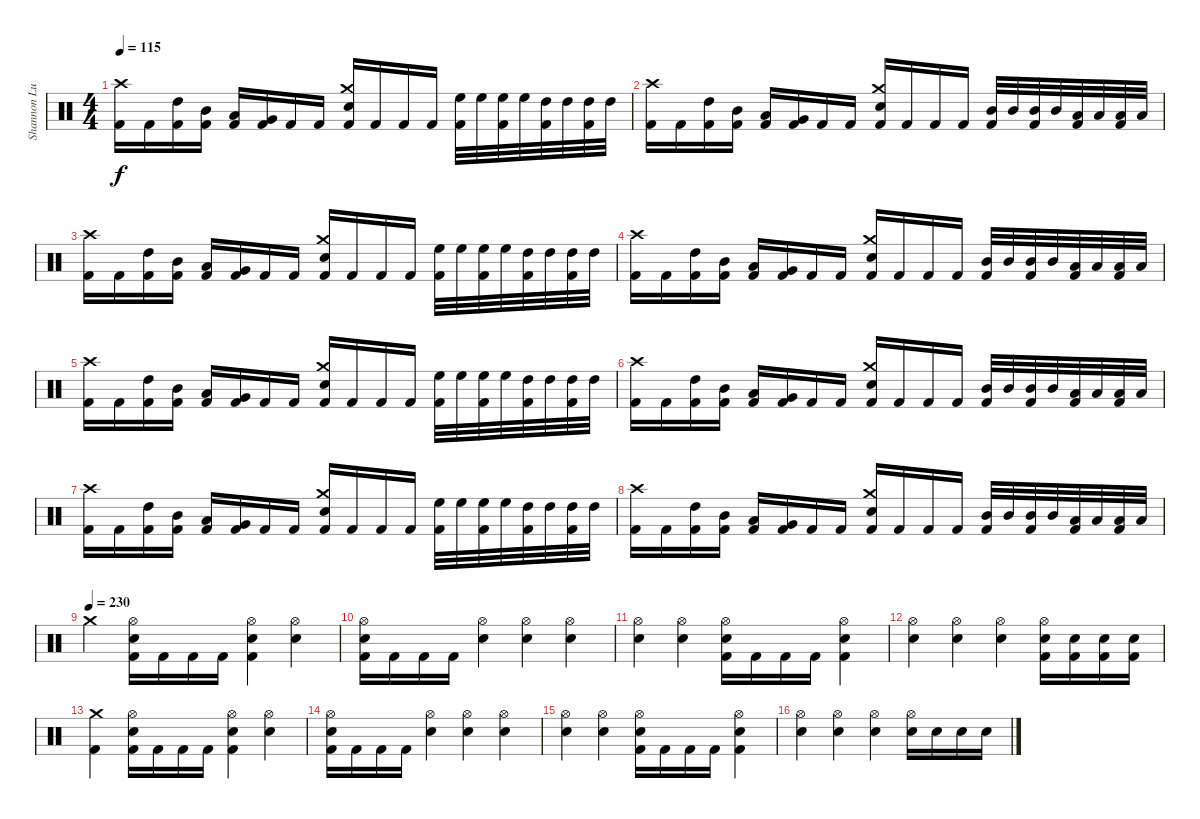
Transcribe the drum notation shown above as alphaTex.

\track ("Shannon Lucas" "Shannon Lu") {instrument percussion}
\staff {score}
\articulation defaults
\ts (4 4)
\tempo 115
\clef neutral
\ks c
("Crash high (hit)" "Kick (hit) 2").16{dy f} "Kick (hit) 2".16 ("High Tom (hit)" "Kick (hit) 2").16 ("Mid Tom (hit)" "Kick (hit) 2").16 ("Low Tom (hit)" "Kick (hit) 2").16 ("Very Low Tom (hit)" "Kick (hit) 2").16 "Kick (hit) 2".16 "Kick (hit) 2".16 ("Crash medium (hit)" "Electric Snare (hit)" "Kick (hit) 2").16 "Kick (hit) 2".16 "Kick (hit) 2".16 "Kick (hit) 2".16 ("High Floor Tom (hit)" "Kick (hit) 2").32 "High Floor Tom (hit)".32 ("High Floor Tom (hit)" "Kick (hit) 2").32 "High Floor Tom (hit)".32 ("High Tom (hit)" "Kick (hit) 2").32 "High Tom (hit)".32 ("High Tom (hit)" "Kick (hit) 2").32 "High Tom (hit)".32 |
("Crash high (hit)" "Kick (hit) 2").16 "Kick (hit) 2".16 ("High Tom (hit)" "Kick (hit) 2").16 ("Mid Tom (hit)" "Kick (hit) 2").16 ("Low Tom (hit)" "Kick (hit) 2").16 ("Very Low Tom (hit)" "Kick (hit) 2").16 "Kick (hit) 2".16 "Kick (hit) 2".16 ("Crash medium (hit)" "Electric Snare (hit)" "Kick (hit) 2").16 "Kick (hit) 2".16 "Kick (hit) 2".16 "Kick (hit) 2".16 ("Mid Tom (hit)" "Kick (hit) 2").32 "Mid Tom (hit)".32 ("Mid Tom (hit)" "Kick (hit) 2").32 "Mid Tom (hit)".32 ("Low Tom (hit)" "Kick (hit) 2").32 "Low Tom (hit)".32 ("Low Tom (hit)" "Kick (hit) 2").32 "Low Tom (hit)".32 |
("Crash high (hit)" "Kick (hit) 2").16 "Kick (hit) 2".16 ("High Tom (hit)" "Kick (hit) 2").16 ("Mid Tom (hit)" "Kick (hit) 2").16 ("Low Tom (hit)" "Kick (hit) 2").16 ("Very Low Tom (hit)" "Kick (hit) 2").16 "Kick (hit) 2".16 "Kick (hit) 2".16 ("Crash medium (hit)" "Electric Snare (hit)" "Kick (hit) 2").16 "Kick (hit) 2".16 "Kick (hit) 2".16 "Kick (hit) 2".16 ("High Floor Tom (hit)" "Kick (hit) 2").32 "High Floor Tom (hit)".32 ("High Floor Tom (hit)" "Kick (hit) 2").32 "High Floor Tom (hit)".32 ("High Tom (hit)" "Kick (hit) 2").32 "High Tom (hit)".32 ("High Tom (hit)" "Kick (hit) 2").32 "High Tom (hit)".32 |
("Crash high (hit)" "Kick (hit) 2").16 "Kick (hit) 2".16 ("High Tom (hit)" "Kick (hit) 2").16 ("Mid Tom (hit)" "Kick (hit) 2").16 ("Low Tom (hit)" "Kick (hit) 2").16 ("Very Low Tom (hit)" "Kick (hit) 2").16 "Kick (hit) 2".16 "Kick (hit) 2".16 ("Crash medium (hit)" "Electric Snare (hit)" "Kick (hit) 2").16 "Kick (hit) 2".16 "Kick (hit) 2".16 "Kick (hit) 2".16 ("Mid Tom (hit)" "Kick (hit) 2").32 "Mid Tom (hit)".32 ("Mid Tom (hit)" "Kick (hit) 2").32 "Mid Tom (hit)".32 ("Low Tom (hit)" "Kick (hit) 2").32 "Low Tom (hit)".32 ("Low Tom (hit)" "Kick (hit) 2").32 "Low Tom (hit)".32 |
("Crash high (hit)" "Kick (hit) 2").16 "Kick (hit) 2".16 ("High Tom (hit)" "Kick (hit) 2").16 ("Mid Tom (hit)" "Kick (hit) 2").16 ("Low Tom (hit)" "Kick (hit) 2").16 ("Very Low Tom (hit)" "Kick (hit) 2").16 "Kick (hit) 2".16 "Kick (hit) 2".16 ("Crash medium (hit)" "Electric Snare (hit)" "Kick (hit) 2").16 "Kick (hit) 2".16 "Kick (hit) 2".16 "Kick (hit) 2".16 ("High Floor Tom (hit)" "Kick (hit) 2").32 "High Floor Tom (hit)".32 ("High Floor Tom (hit)" "Kick (hit) 2").32 "High Floor Tom (hit)".32 ("High Tom (hit)" "Kick (hit) 2").32 "High Tom (hit)".32 ("High Tom (hit)" "Kick (hit) 2").32 "High Tom (hit)".32 |
("Crash high (hit)" "Kick (hit) 2").16 "Kick (hit) 2".16 ("High Tom (hit)" "Kick (hit) 2").16 ("Mid Tom (hit)" "Kick (hit) 2").16 ("Low Tom (hit)" "Kick (hit) 2").16 ("Very Low Tom (hit)" "Kick (hit) 2").16 "Kick (hit) 2".16 "Kick (hit) 2".16 ("Crash medium (hit)" "Electric Snare (hit)" "Kick (hit) 2").16 "Kick (hit) 2".16 "Kick (hit) 2".16 "Kick (hit) 2".16 ("Mid Tom (hit)" "Kick (hit) 2").32 "Mid Tom (hit)".32 ("Mid Tom (hit)" "Kick (hit) 2").32 "Mid Tom (hit)".32 ("Low Tom (hit)" "Kick (hit) 2").32 "Low Tom (hit)".32 ("Low Tom (hit)" "Kick (hit) 2").32 "Low Tom (hit)".32 |
("Crash high (hit)" "Kick (hit) 2").16 "Kick (hit) 2".16 ("High Tom (hit)" "Kick (hit) 2").16 ("Mid Tom (hit)" "Kick (hit) 2").16 ("Low Tom (hit)" "Kick (hit) 2").16 ("Very Low Tom (hit)" "Kick (hit) 2").16 "Kick (hit) 2".16 "Kick (hit) 2".16 ("Crash medium (hit)" "Electric Snare (hit)" "Kick (hit) 2").16 "Kick (hit) 2".16 "Kick (hit) 2".16 "Kick (hit) 2".16 ("High Floor Tom (hit)" "Kick (hit) 2").32 "High Floor Tom (hit)".32 ("High Floor Tom (hit)" "Kick (hit) 2").32 "High Floor Tom (hit)".32 ("High Tom (hit)" "Kick (hit) 2").32 "High Tom (hit)".32 ("High Tom (hit)" "Kick (hit) 2").32 "High Tom (hit)".32 |
("Crash high (hit)" "Kick (hit) 2").16 "Kick (hit) 2".16 ("High Tom (hit)" "Kick (hit) 2").16 ("Mid Tom (hit)" "Kick (hit) 2").16 ("Low Tom (hit)" "Kick (hit) 2").16 ("Very Low Tom (hit)" "Kick (hit) 2").16 "Kick (hit) 2".16 "Kick (hit) 2".16 ("Crash medium (hit)" "Electric Snare (hit)" "Kick (hit) 2").16 "Kick (hit) 2".16 "Kick (hit) 2".16 "Kick (hit) 2".16 ("Mid Tom (hit)" "Kick (hit) 2").32 "Mid Tom (hit)".32 ("Mid Tom (hit)" "Kick (hit) 2").32 "Mid Tom (hit)".32 ("Low Tom (hit)" "Kick (hit) 2").32 "Low Tom (hit)".32 ("Low Tom (hit)" "Kick (hit) 2").32 "Low Tom (hit)".32 |
\tempo (230)
"Crash medium (hit)".4 ("Hi-Hat (open)" "Electric Snare (hit)" "Kick (hit) 2").16 "Kick (hit) 2".16 "Kick (hit) 2".16 "Kick (hit) 2".16 ("Hi-Hat (open)" "Electric Snare (hit)" "Kick (hit) 2").4 ("Hi-Hat (open)" "Electric Snare (hit)").4 |
("Hi-Hat (open)" "Electric Snare (hit)" "Kick (hit) 2").16 "Kick (hit) 2".16 "Kick (hit) 2".16 "Kick (hit) 2".16 ("Hi-Hat (open)" "Electric Snare (hit)").4 ("Hi-Hat (open)" "Electric Snare (hit)").4 ("Hi-Hat (open)" "Electric Snare (hit)").4 |
("Hi-Hat (open)" "Electric Snare (hit)").4 ("Hi-Hat (open)" "Electric Snare (hit)").4 ("Hi-Hat (open)" "Electric Snare (hit)" "Kick (hit) 2").16 "Kick (hit) 2".16 "Kick (hit) 2".16 "Kick (hit) 2".16 ("Hi-Hat (open)" "Electric Snare (hit)" "Kick (hit) 2").4 |
("Hi-Hat (open)" "Electric Snare (hit)").4 ("Hi-Hat (open)" "Electric Snare (hit)").4 ("Hi-Hat (open)" "Electric Snare (hit)").4 ("Hi-Hat (open)" "Electric Snare (hit)" "Kick (hit) 2").16 ("Electric Snare (hit)" "Kick (hit) 2").16 ("Electric Snare (hit)" "Kick (hit) 2").16 ("Electric Snare (hit)" "Kick (hit) 2").16 |
("Crash medium (hit)" "Kick (hit) 2").4 ("Hi-Hat (open)" "Electric Snare (hit)" "Kick (hit) 2").16 "Kick (hit) 2".16 "Kick (hit) 2".16 "Kick (hit) 2".16 ("Hi-Hat (open)" "Electric Snare (hit)" "Kick (hit) 2").4 ("Hi-Hat (open)" "Electric Snare (hit)").4 |
("Hi-Hat (open)" "Electric Snare (hit)" "Kick (hit) 2").16 "Kick (hit) 2".16 "Kick (hit) 2".16 "Kick (hit) 2".16 ("Hi-Hat (open)" "Electric Snare (hit)").4 ("Hi-Hat (open)" "Electric Snare (hit)").4 ("Hi-Hat (open)" "Electric Snare (hit)").4 |
("Hi-Hat (open)" "Electric Snare (hit)").4 ("Hi-Hat (open)" "Electric Snare (hit)").4 ("Hi-Hat (open)" "Electric Snare (hit)" "Kick (hit) 2").16 "Kick (hit) 2".16 "Kick (hit) 2".16 "Kick (hit) 2".16 ("Hi-Hat (open)" "Electric Snare (hit)" "Kick (hit) 2").4 |
("Hi-Hat (open)" "Electric Snare (hit)").4 ("Hi-Hat (open)" "Electric Snare (hit)").4 ("Hi-Hat (open)" "Electric Snare (hit)").4 ("Hi-Hat (open)" "Electric Snare (hit)").16 "Electric Snare (hit)".16 "Electric Snare (hit)".16 "Electric Snare (hit)".16
